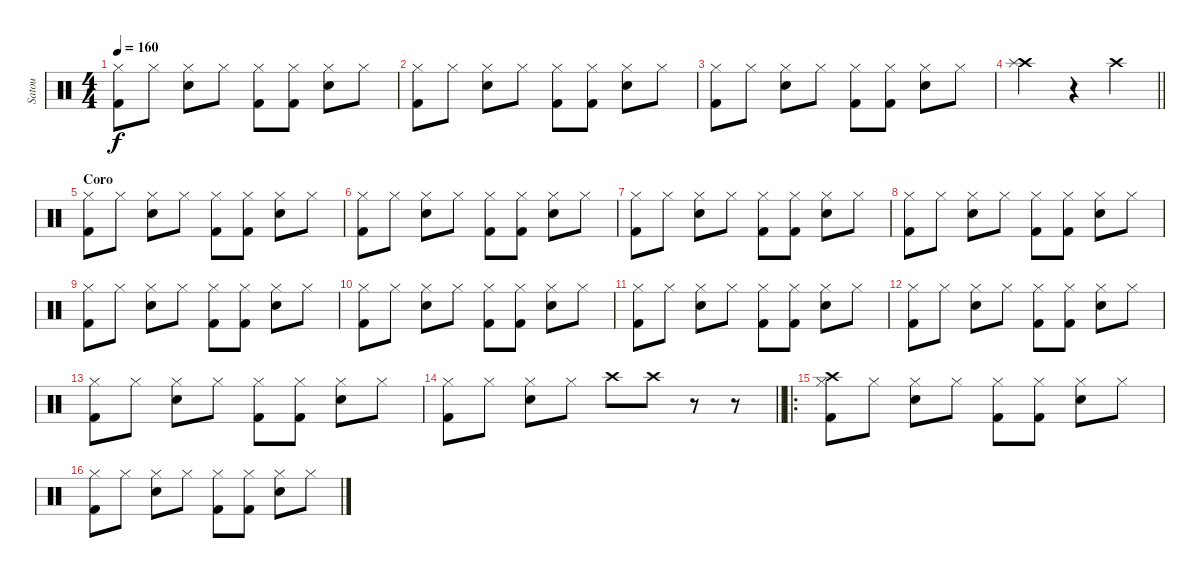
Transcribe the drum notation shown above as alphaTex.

\track ("Satou" "Satou") {instrument percussion}
\staff {score}
\articulation defaults
\ts (4 4)
\tempo 160
\clef neutral
\ks c
("Hi-Hat (closed)" "Kick (hit) 2").8{dy f} "Hi-Hat (closed)".8 ("Hi-Hat (closed)" "Snare (hit) 2").8 "Hi-Hat (closed)".8 ("Hi-Hat (closed)" "Kick (hit) 2").8 ("Hi-Hat (closed)" "Kick (hit) 2").8 ("Hi-Hat (closed)" "Snare (hit) 2").8 "Hi-Hat (closed)".8 |
("Hi-Hat (closed)" "Kick (hit) 2").8 "Hi-Hat (closed)".8 ("Hi-Hat (closed)" "Snare (hit) 2").8 "Hi-Hat (closed)".8 ("Hi-Hat (closed)" "Kick (hit) 2").8 ("Hi-Hat (closed)" "Kick (hit) 2").8 ("Hi-Hat (closed)" "Snare (hit) 2").8 "Hi-Hat (closed)".8 |
("Hi-Hat (closed)" "Kick (hit) 2").8 "Hi-Hat (closed)".8 ("Hi-Hat (closed)" "Snare (hit) 2").8 "Hi-Hat (closed)".8 ("Hi-Hat (closed)" "Kick (hit) 2").8 ("Hi-Hat (closed)" "Kick (hit) 2").8 ("Hi-Hat (closed)" "Snare (hit) 2").8 "Hi-Hat (closed)".8 |
\barLineRight lightlight
("Crash high (hit)" "Splash (hit)").2 r.4 "Crash high (hit)".4 |
\section ("" "Coro")
("Hi-Hat (closed)" "Kick (hit) 2").8 "Hi-Hat (closed)".8 ("Hi-Hat (closed)" "Snare (hit) 2").8 "Hi-Hat (closed)".8 ("Hi-Hat (closed)" "Kick (hit) 2").8 ("Hi-Hat (closed)" "Kick (hit) 2").8 ("Hi-Hat (closed)" "Snare (hit) 2").8 "Hi-Hat (closed)".8 |
("Hi-Hat (closed)" "Kick (hit) 2").8 "Hi-Hat (closed)".8 ("Hi-Hat (closed)" "Snare (hit) 2").8 "Hi-Hat (closed)".8 ("Hi-Hat (closed)" "Kick (hit) 2").8 ("Hi-Hat (closed)" "Kick (hit) 2").8 ("Hi-Hat (closed)" "Snare (hit) 2").8 "Hi-Hat (closed)".8 |
("Hi-Hat (closed)" "Kick (hit) 2").8 "Hi-Hat (closed)".8 ("Hi-Hat (closed)" "Snare (hit) 2").8 "Hi-Hat (closed)".8 ("Hi-Hat (closed)" "Kick (hit) 2").8 ("Hi-Hat (closed)" "Kick (hit) 2").8 ("Hi-Hat (closed)" "Snare (hit) 2").8 "Hi-Hat (closed)".8 |
("Hi-Hat (closed)" "Kick (hit) 2").8 "Hi-Hat (closed)".8 ("Hi-Hat (closed)" "Snare (hit) 2").8 "Hi-Hat (closed)".8 ("Hi-Hat (closed)" "Kick (hit) 2").8 ("Hi-Hat (closed)" "Kick (hit) 2").8 ("Hi-Hat (closed)" "Snare (hit) 2").8 "Hi-Hat (closed)".8 |
("Hi-Hat (closed)" "Kick (hit) 2").8 "Hi-Hat (closed)".8 ("Hi-Hat (closed)" "Snare (hit) 2").8 "Hi-Hat (closed)".8 ("Hi-Hat (closed)" "Kick (hit) 2").8 ("Hi-Hat (closed)" "Kick (hit) 2").8 ("Hi-Hat (closed)" "Snare (hit) 2").8 "Hi-Hat (closed)".8 |
("Hi-Hat (closed)" "Kick (hit) 2").8 "Hi-Hat (closed)".8 ("Hi-Hat (closed)" "Snare (hit) 2").8 "Hi-Hat (closed)".8 ("Hi-Hat (closed)" "Kick (hit) 2").8 ("Hi-Hat (closed)" "Kick (hit) 2").8 ("Hi-Hat (closed)" "Snare (hit) 2").8 "Hi-Hat (closed)".8 |
("Hi-Hat (closed)" "Kick (hit) 2").8 "Hi-Hat (closed)".8 ("Hi-Hat (closed)" "Snare (hit) 2").8 "Hi-Hat (closed)".8 ("Hi-Hat (closed)" "Kick (hit) 2").8 ("Hi-Hat (closed)" "Kick (hit) 2").8 ("Hi-Hat (closed)" "Snare (hit) 2").8 "Hi-Hat (closed)".8 |
("Hi-Hat (closed)" "Kick (hit) 2").8 "Hi-Hat (closed)".8 ("Hi-Hat (closed)" "Snare (hit) 2").8 "Hi-Hat (closed)".8 ("Hi-Hat (closed)" "Kick (hit) 2").8 ("Hi-Hat (closed)" "Kick (hit) 2").8 ("Hi-Hat (closed)" "Snare (hit) 2").8 "Hi-Hat (closed)".8 |
("Hi-Hat (closed)" "Kick (hit) 2").8 "Hi-Hat (closed)".8 ("Hi-Hat (closed)" "Snare (hit) 2").8 "Hi-Hat (closed)".8 ("Hi-Hat (closed)" "Kick (hit) 2").8 ("Hi-Hat (closed)" "Kick (hit) 2").8 ("Hi-Hat (closed)" "Snare (hit) 2").8 "Hi-Hat (closed)".8 |
\barLineRight lightlight
("Hi-Hat (closed)" "Kick (hit) 2").8 "Hi-Hat (closed)".8 ("Hi-Hat (closed)" "Snare (hit) 2").8 "Hi-Hat (closed)".8 "Crash high (hit)".8 "Crash high (hit)".8 r.8 r.8 |
\ro
("Hi-Hat (closed)" "Kick (hit) 2" "Crash high (hit)").8 "Hi-Hat (closed)".8 ("Hi-Hat (closed)" "Snare (hit) 2").8 "Hi-Hat (closed)".8 ("Hi-Hat (closed)" "Kick (hit) 2").8 ("Hi-Hat (closed)" "Kick (hit) 2").8 ("Hi-Hat (closed)" "Snare (hit) 2").8 "Hi-Hat (closed)".8 |
("Hi-Hat (closed)" "Kick (hit) 2").8 "Hi-Hat (closed)".8 ("Hi-Hat (closed)" "Snare (hit) 2").8 "Hi-Hat (closed)".8 ("Hi-Hat (closed)" "Kick (hit) 2").8 ("Hi-Hat (closed)" "Kick (hit) 2").8 ("Hi-Hat (closed)" "Snare (hit) 2").8 "Hi-Hat (closed)".8
